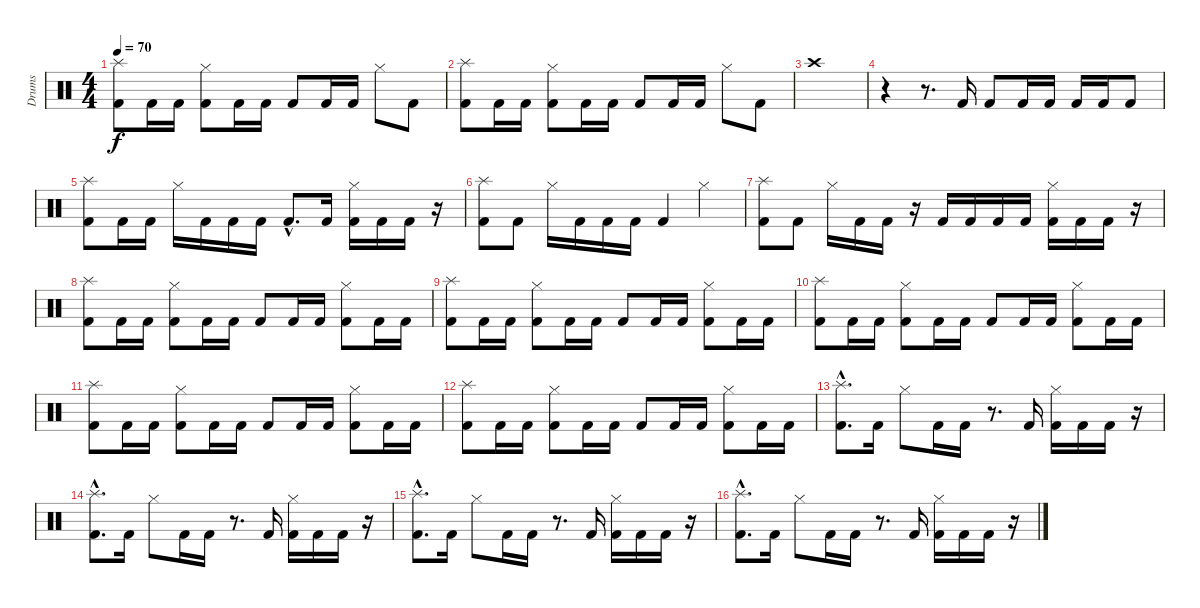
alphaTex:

\track ("Drums" "Drums") {instrument percussion}
\staff {score}
\articulation defaults
\ts (4 4)
\tempo 70
\clef neutral
\ks c
("Splash (hit)" "Kick (hit) 2").8{dy f} "Kick (hit) 2".16 "Kick (hit) 2".16 ("Hi-Hat (closed)" "Kick (hit) 2").8 "Kick (hit) 2".16 "Kick (hit) 2".16 "Kick (hit) 2".8 "Kick (hit) 2".16 "Kick (hit) 2".16 "Hi-Hat (closed)".8 "Kick (hit) 2".8 |
("Splash (hit)" "Kick (hit) 2").8 "Kick (hit) 2".16 "Kick (hit) 2".16 ("Hi-Hat (closed)" "Kick (hit) 2").8 "Kick (hit) 2".16 "Kick (hit) 2".16 "Kick (hit) 2".8 "Kick (hit) 2".16 "Kick (hit) 2".16 "Hi-Hat (closed)".8 "Kick (hit) 2".8 |
"Crash high (hit)".1 |
r.4 r.8{d} "Kick (hit) 2".16 "Kick (hit) 2".8 "Kick (hit) 2".16 "Kick (hit) 2".16 "Kick (hit) 2".16 "Kick (hit) 2".16 "Kick (hit) 2".8 |
("Splash (hit)" "Kick (hit) 2").8 "Kick (hit) 2".16 "Kick (hit) 2".16 "Hi-Hat (closed)".16 "Kick (hit) 2".16 "Kick (hit) 2".16 "Kick (hit) 2".16 "Kick (hit) 2"{hac}.8{d} "Kick (hit) 2".16 ("Hi-Hat (closed)" "Kick (hit) 2").16 "Kick (hit) 2".16 "Kick (hit) 2".16 r.16 |
("Splash (hit)" "Kick (hit) 2").8 "Kick (hit) 2".8 "Hi-Hat (closed)".16 "Kick (hit) 2".16 "Kick (hit) 2".16 "Kick (hit) 2".16 "Kick (hit) 2".4 "Hi-Hat (closed)".4 |
("Splash (hit)" "Kick (hit) 2").8 "Kick (hit) 2".8 "Hi-Hat (closed)".16 "Kick (hit) 2".16 "Kick (hit) 2".16 r.16 "Kick (hit) 2".16 "Kick (hit) 2".16 "Kick (hit) 2".16 "Kick (hit) 2".16 ("Hi-Hat (closed)" "Kick (hit) 2").16 "Kick (hit) 2".16 "Kick (hit) 2".16 r.16 |
("Splash (hit)" "Kick (hit) 2").8 "Kick (hit) 2".16 "Kick (hit) 2".16 ("Hi-Hat (closed)" "Kick (hit) 2").8 "Kick (hit) 2".16 "Kick (hit) 2".16 "Kick (hit) 2".8 "Kick (hit) 2".16 "Kick (hit) 2".16 ("Hi-Hat (closed)" "Kick (hit) 2").8 "Kick (hit) 2".16 "Kick (hit) 2".16 |
("Splash (hit)" "Kick (hit) 2").8 "Kick (hit) 2".16 "Kick (hit) 2".16 ("Hi-Hat (closed)" "Kick (hit) 2").8 "Kick (hit) 2".16 "Kick (hit) 2".16 "Kick (hit) 2".8 "Kick (hit) 2".16 "Kick (hit) 2".16 ("Hi-Hat (closed)" "Kick (hit) 2").8 "Kick (hit) 2".16 "Kick (hit) 2".16 |
("Splash (hit)" "Kick (hit) 2").8 "Kick (hit) 2".16 "Kick (hit) 2".16 ("Hi-Hat (closed)" "Kick (hit) 2").8 "Kick (hit) 2".16 "Kick (hit) 2".16 "Kick (hit) 2".8 "Kick (hit) 2".16 "Kick (hit) 2".16 ("Hi-Hat (closed)" "Kick (hit) 2").8 "Kick (hit) 2".16 "Kick (hit) 2".16 |
("Splash (hit)" "Kick (hit) 2").8 "Kick (hit) 2".16 "Kick (hit) 2".16 ("Hi-Hat (closed)" "Kick (hit) 2").8 "Kick (hit) 2".16 "Kick (hit) 2".16 "Kick (hit) 2".8 "Kick (hit) 2".16 "Kick (hit) 2".16 ("Hi-Hat (closed)" "Kick (hit) 2").8 "Kick (hit) 2".16 "Kick (hit) 2".16 |
("Splash (hit)" "Kick (hit) 2").8 "Kick (hit) 2".16 "Kick (hit) 2".16 ("Hi-Hat (closed)" "Kick (hit) 2").8 "Kick (hit) 2".16 "Kick (hit) 2".16 "Kick (hit) 2".8 "Kick (hit) 2".16 "Kick (hit) 2".16 ("Hi-Hat (closed)" "Kick (hit) 2").8 "Kick (hit) 2".16 "Kick (hit) 2".16 |
("Splash (hit)"{hac} "Kick (hit) 2"{hac}).8{d} "Kick (hit) 2".16 "Hi-Hat (closed)".8 "Kick (hit) 2".16 "Kick (hit) 2".16 r.8{d} "Kick (hit) 2".16 ("Hi-Hat (closed)" "Kick (hit) 2").16 "Kick (hit) 2".16 "Kick (hit) 2".16 r.16 |
("Splash (hit)"{hac} "Kick (hit) 2"{hac}).8{d} "Kick (hit) 2".16 "Hi-Hat (closed)".8 "Kick (hit) 2".16 "Kick (hit) 2".16 r.8{d} "Kick (hit) 2".16 ("Hi-Hat (closed)" "Kick (hit) 2").16 "Kick (hit) 2".16 "Kick (hit) 2".16 r.16 |
("Splash (hit)"{hac} "Kick (hit) 2"{hac}).8{d} "Kick (hit) 2".16 "Hi-Hat (closed)".8 "Kick (hit) 2".16 "Kick (hit) 2".16 r.8{d} "Kick (hit) 2".16 ("Hi-Hat (closed)" "Kick (hit) 2").16 "Kick (hit) 2".16 "Kick (hit) 2".16 r.16 |
("Splash (hit)"{hac} "Kick (hit) 2"{hac}).8{d} "Kick (hit) 2".16 "Hi-Hat (closed)".8 "Kick (hit) 2".16 "Kick (hit) 2".16 r.8{d} "Kick (hit) 2".16 ("Hi-Hat (closed)" "Kick (hit) 2").16 "Kick (hit) 2".16 "Kick (hit) 2".16 r.16
